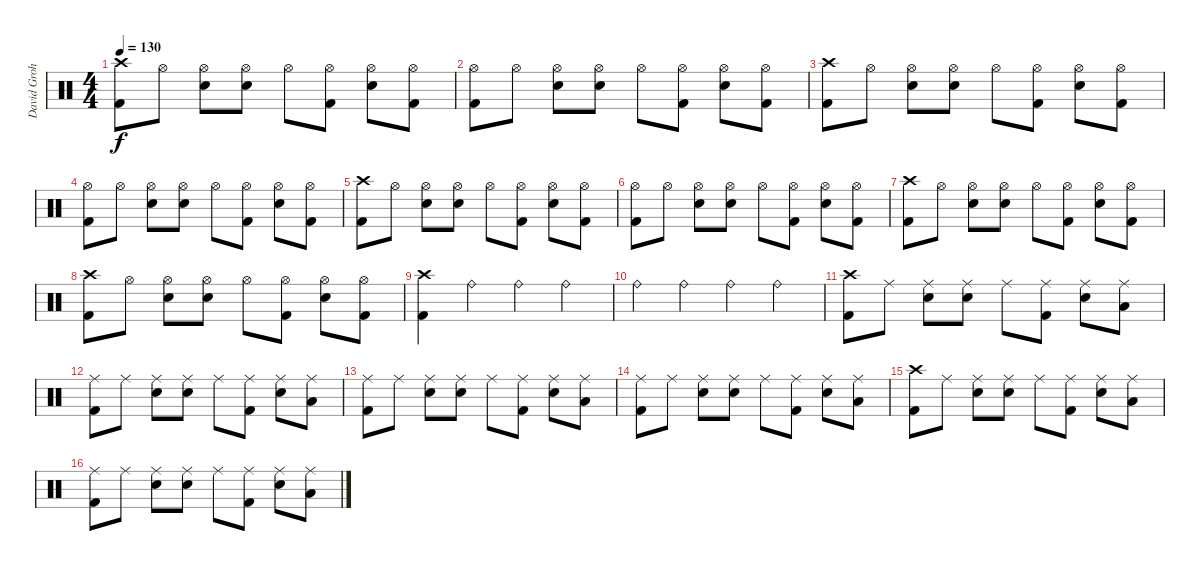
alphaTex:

\track ("David Grohl" "David Groh") {instrument percussion}
\staff {score}
\articulation defaults
\ts (4 4)
\tempo 130
\clef neutral
\ks c
("Crash high (hit)" "Kick (hit) 2").8{dy f} "Hi-Hat (open)".8 ("Hi-Hat (open)" "Electric Snare (hit)").8 ("Hi-Hat (open)" "Electric Snare (hit)").8 "Hi-Hat (open)".8 ("Hi-Hat (open)" "Kick (hit) 2").8 ("Hi-Hat (open)" "Electric Snare (hit)").8 ("Hi-Hat (open)" "Kick (hit) 2").8 |
("Hi-Hat (open)" "Kick (hit) 2").8 "Hi-Hat (open)".8 ("Hi-Hat (open)" "Electric Snare (hit)").8 ("Hi-Hat (open)" "Electric Snare (hit)").8 "Hi-Hat (open)".8 ("Hi-Hat (open)" "Kick (hit) 2").8 ("Hi-Hat (open)" "Electric Snare (hit)").8 ("Hi-Hat (open)" "Kick (hit) 2").8 |
("Crash high (hit)" "Kick (hit) 2").8 "Hi-Hat (open)".8 ("Hi-Hat (open)" "Electric Snare (hit)").8 ("Hi-Hat (open)" "Electric Snare (hit)").8 "Hi-Hat (open)".8 ("Hi-Hat (open)" "Kick (hit) 2").8 ("Hi-Hat (open)" "Electric Snare (hit)").8 ("Hi-Hat (open)" "Kick (hit) 2").8 |
("Hi-Hat (open)" "Kick (hit) 2").8 "Hi-Hat (open)".8 ("Hi-Hat (open)" "Electric Snare (hit)").8 ("Hi-Hat (open)" "Electric Snare (hit)").8 "Hi-Hat (open)".8 ("Hi-Hat (open)" "Kick (hit) 2").8 ("Hi-Hat (open)" "Electric Snare (hit)").8 ("Hi-Hat (open)" "Kick (hit) 2").8 |
("Crash high (hit)" "Kick (hit) 2").8 "Hi-Hat (open)".8 ("Hi-Hat (open)" "Electric Snare (hit)").8 ("Hi-Hat (open)" "Electric Snare (hit)").8 "Hi-Hat (open)".8 ("Hi-Hat (open)" "Kick (hit) 2").8 ("Hi-Hat (open)" "Electric Snare (hit)").8 ("Hi-Hat (open)" "Kick (hit) 2").8 |
("Hi-Hat (open)" "Kick (hit) 2").8 "Hi-Hat (open)".8 ("Hi-Hat (open)" "Electric Snare (hit)").8 ("Hi-Hat (open)" "Electric Snare (hit)").8 "Hi-Hat (open)".8 ("Hi-Hat (open)" "Kick (hit) 2").8 ("Hi-Hat (open)" "Electric Snare (hit)").8 ("Hi-Hat (open)" "Kick (hit) 2").8 |
("Crash high (hit)" "Kick (hit) 2").8 "Hi-Hat (open)".8 ("Hi-Hat (open)" "Electric Snare (hit)").8 ("Hi-Hat (open)" "Electric Snare (hit)").8 "Hi-Hat (open)".8 ("Hi-Hat (open)" "Kick (hit) 2").8 ("Hi-Hat (open)" "Electric Snare (hit)").8 ("Hi-Hat (open)" "Kick (hit) 2").8 |
("Crash high (hit)" "Kick (hit) 2").8 "Hi-Hat (open)".8 ("Hi-Hat (open)" "Electric Snare (hit)").8 ("Hi-Hat (open)" "Electric Snare (hit)").8 "Hi-Hat (open)".8 ("Hi-Hat (open)" "Kick (hit) 2").8 ("Hi-Hat (open)" "Electric Snare (hit)").8 ("Hi-Hat (open)" "Kick (hit) 2").8 |
("Crash high (hit)" "Kick (hit) 2").4 "Ride (bell)".4 "Ride (bell)".4 "Ride (bell)".4 |
"Ride (bell)".4 "Ride (bell)".4 "Ride (bell)".4 "Ride (bell)".4 |
("Crash high (hit)" "Kick (hit) 2").8 "Ride (middle)".8 ("Ride (middle)" "Electric Snare (hit)").8 ("Ride (middle)" "Electric Snare (hit)").8 "Ride (middle)".8 ("Ride (middle)" "Kick (hit) 2").8 ("Ride (middle)" "Electric Snare (hit)").8 ("Ride (middle)" "Low Tom (hit)").8 |
("Ride (middle)" "Kick (hit) 2").8 "Ride (middle)".8 ("Ride (middle)" "Electric Snare (hit)").8 ("Ride (middle)" "Electric Snare (hit)").8 "Ride (middle)".8 ("Ride (middle)" "Kick (hit) 2").8 ("Ride (middle)" "Electric Snare (hit)").8 ("Ride (middle)" "Low Tom (hit)").8 |
("Ride (middle)" "Kick (hit) 2").8 "Ride (middle)".8 ("Ride (middle)" "Electric Snare (hit)").8 ("Ride (middle)" "Electric Snare (hit)").8 "Ride (middle)".8 ("Ride (middle)" "Kick (hit) 2").8 ("Ride (middle)" "Electric Snare (hit)").8 ("Ride (middle)" "Low Tom (hit)").8 |
("Ride (middle)" "Kick (hit) 2").8 "Ride (middle)".8 ("Ride (middle)" "Electric Snare (hit)").8 ("Ride (middle)" "Electric Snare (hit)").8 "Ride (middle)".8 ("Ride (middle)" "Kick (hit) 2").8 ("Ride (middle)" "Electric Snare (hit)").8 ("Ride (middle)" "Low Tom (hit)").8 |
("Crash high (hit)" "Kick (hit) 2").8 "Ride (middle)".8 ("Ride (middle)" "Electric Snare (hit)").8 ("Ride (middle)" "Electric Snare (hit)").8 "Ride (middle)".8 ("Ride (middle)" "Kick (hit) 2").8 ("Ride (middle)" "Electric Snare (hit)").8 ("Ride (middle)" "Low Tom (hit)").8 |
("Ride (middle)" "Kick (hit) 2").8 "Ride (middle)".8 ("Ride (middle)" "Electric Snare (hit)").8 ("Ride (middle)" "Electric Snare (hit)").8 "Ride (middle)".8 ("Ride (middle)" "Kick (hit) 2").8 ("Ride (middle)" "Electric Snare (hit)").8 ("Ride (middle)" "Low Tom (hit)").8
